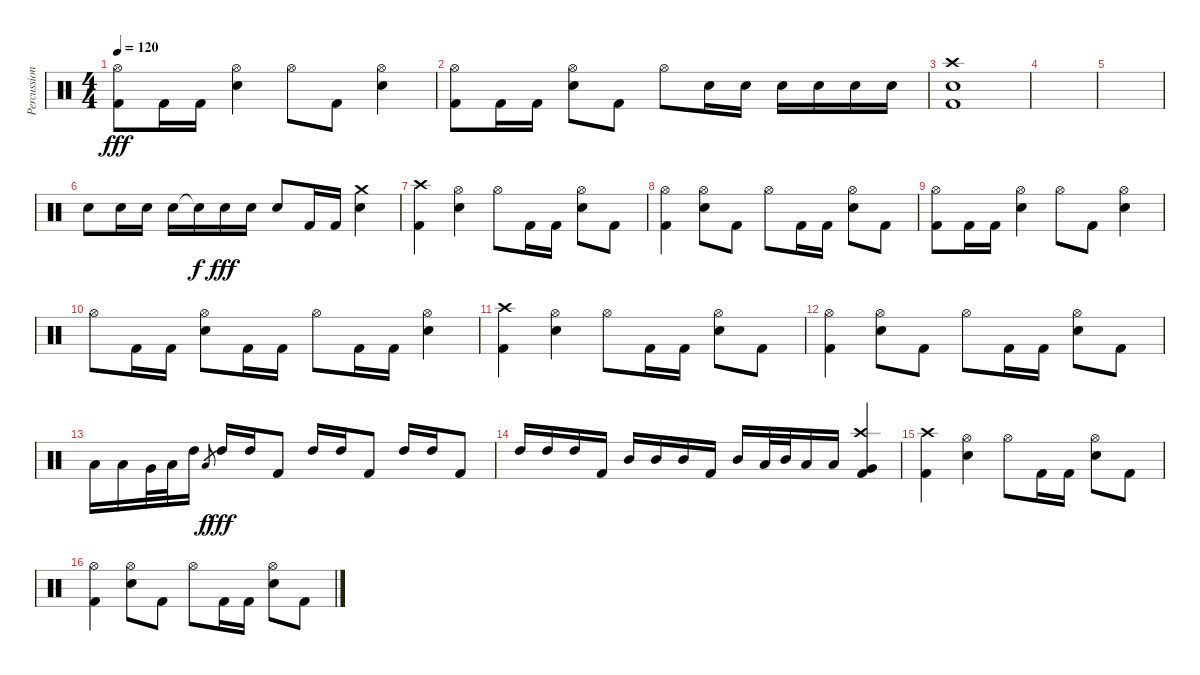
\track ("Percussion" "Percussion") {instrument percussion}
\staff {score}
\articulation defaults
\ts (4 4)
\tempo 120
\clef neutral
\ks c
("Hi-Hat (open)" "Kick (hit) 2").8{dy fff} "Kick (hit) 2".16 "Kick (hit) 2".16 ("Hi-Hat (open)" "Snare (hit) 2").4 "Hi-Hat (open)".8 "Kick (hit) 2".8 ("Hi-Hat (open)" "Snare (hit) 2").4 |
("Hi-Hat (open)" "Kick (hit) 2").8 "Kick (hit) 2".16 "Kick (hit) 2".16 ("Hi-Hat (open)" "Snare (hit) 2").8 "Kick (hit) 2".8 "Hi-Hat (open)".8 "Snare (hit) 2".16 "Snare (hit) 2".16 "Snare (hit) 2".16 "Snare (hit) 2".16 "Snare (hit) 2".16 "Snare (hit) 2".16 |
("Crash high (hit)" "Snare (hit) 2" "Kick (hit) 2").1{bd 240} |
|
|
"Snare (hit) 2".8 "Snare (hit) 2".16 "Snare (hit) 2".16 "Snare (hit) 2".16 "Snare (hit)"{t}.16{dy f} "Snare (hit) 2".16{dy fff} "Snare (hit) 2".16 "Snare (hit) 2".8 "Kick (hit) 2".16 "Kick (hit) 2".16 ("Crash medium (hit)" "Snare (hit) 2").4 |
("Crash high (hit)" "Kick (hit) 2").4 ("Hi-Hat (open)" "Snare (hit) 2").4 "Hi-Hat (open)".8 "Kick (hit) 2".16 "Kick (hit) 2".16 ("Hi-Hat (open)" "Snare (hit) 2").8 "Kick (hit) 2".8 |
("Hi-Hat (open)" "Kick (hit) 2").4 ("Hi-Hat (open)" "Snare (hit) 2").8 "Kick (hit) 2".8 "Hi-Hat (open)".8 "Kick (hit) 2".16 "Kick (hit) 2".16 ("Hi-Hat (open)" "Snare (hit) 2").8 "Kick (hit) 2".8 |
("Hi-Hat (open)" "Kick (hit) 2").8 "Kick (hit) 2".16 "Kick (hit) 2".16 ("Hi-Hat (open)" "Snare (hit) 2").4 "Hi-Hat (open)".8 "Kick (hit) 2".8 ("Hi-Hat (open)" "Snare (hit) 2").4 |
"Hi-Hat (open)".8 "Kick (hit) 2".16 "Kick (hit) 2".16 ("Hi-Hat (open)" "Snare (hit) 2").8 "Kick (hit) 2".16 "Kick (hit) 2".16 "Hi-Hat (open)".8 "Kick (hit) 2".16 "Kick (hit) 2".16 ("Hi-Hat (open)" "Snare (hit) 2").4 |
("Crash high (hit)" "Kick (hit) 2").4 ("Hi-Hat (open)" "Snare (hit) 2").4 "Hi-Hat (open)".8 "Kick (hit) 2".16 "Kick (hit) 2".16 ("Hi-Hat (open)" "Snare (hit) 2").8 "Kick (hit) 2".8 |
("Hi-Hat (open)" "Kick (hit) 2").4 ("Hi-Hat (open)" "Snare (hit) 2").8 "Kick (hit) 2".8 "Hi-Hat (open)".8 "Kick (hit) 2".16 "Kick (hit) 2".16 ("Hi-Hat (open)" "Snare (hit) 2").8 "Kick (hit) 2".8 |
"Low Tom (hit)".16 "Low Tom (hit)".16 "Very Low Tom (hit)".32 "Low Tom (hit)".32 "High Tom (hit)".16 "Low Tom (hit)".8{gr dy f} "High Tom (hit)".16{dy fff} "High Tom (hit)".16 "Kick (hit) 2".8 "High Tom (hit)".16 "High Tom (hit)".16 "Kick (hit) 2".8 "High Tom (hit)".16 "High Tom (hit)".16 "Kick (hit) 2".8 |
"High Tom (hit)".16 "High Tom (hit)".16 "High Tom (hit)".16 "Kick (hit) 2".16 "Mid Tom (hit)".16 "Mid Tom (hit)".16 "Mid Tom (hit)".16 "Kick (hit) 2".16 "Mid Tom (hit)".16 "Low Tom (hit)".32 "Mid Tom (hit)".32 "Low Tom (hit)".16 "Low Tom (hit)".16 ("Crash high (hit)" "Very Low Tom (hit)" "Kick (hit) 2").4 |
("Crash high (hit)" "Kick (hit) 2").4 ("Hi-Hat (open)" "Snare (hit) 2").4 "Hi-Hat (open)".8 "Kick (hit) 2".16 "Kick (hit) 2".16 ("Hi-Hat (open)" "Snare (hit) 2").8 "Kick (hit) 2".8 |
("Hi-Hat (open)" "Kick (hit) 2").4 ("Hi-Hat (open)" "Snare (hit) 2").8 "Kick (hit) 2".8 "Hi-Hat (open)".8 "Kick (hit) 2".16 "Kick (hit) 2".16 ("Hi-Hat (open)" "Snare (hit) 2").8 "Kick (hit) 2".8
